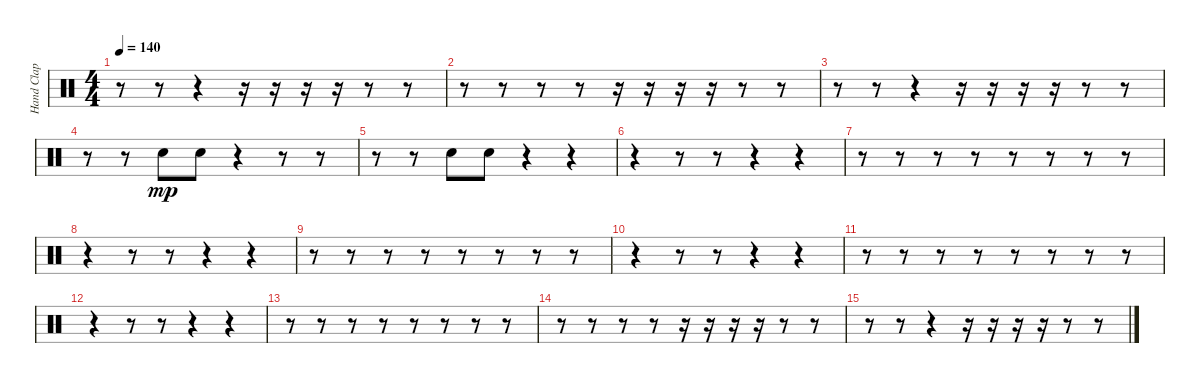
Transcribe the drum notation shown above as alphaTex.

\track ("Hand Clap" "Hand Clap") {instrument percussion}
\staff {score}
\articulation defaults
\ts (4 4)
\tempo 140
\clef neutral
\ks c
r.8{dy mp} r.8 r.4 r.16 r.16 r.16 r.16 r.8 r.8 |
r.8 r.8 r.8 r.8 r.16 r.16 r.16 r.16 r.8 r.8 |
r.8 r.8 r.4 r.16 r.16 r.16 r.16 r.8 r.8 |
r.8 r.8 "Hand Clap (hit)".8 "Hand Clap (hit)".8 r.4 r.8 r.8 |
r.8 r.8 "Hand Clap (hit)".8 "Hand Clap (hit)".8 r.4 r.4 |
r.4 r.8 r.8 r.4 r.4 |
r.8 r.8 r.8 r.8 r.8 r.8 r.8 r.8 |
r.4 r.8 r.8 r.4 r.4 |
r.8 r.8 r.8 r.8 r.8 r.8 r.8 r.8 |
r.4 r.8 r.8 r.4 r.4 |
r.8 r.8 r.8 r.8 r.8 r.8 r.8 r.8 |
r.4 r.8 r.8 r.4 r.4 |
r.8 r.8 r.8 r.8 r.8 r.8 r.8 r.8 |
r.8 r.8 r.8 r.8 r.16 r.16 r.16 r.16 r.8 r.8 |
r.8 r.8 r.4 r.16 r.16 r.16 r.16 r.8 r.8
